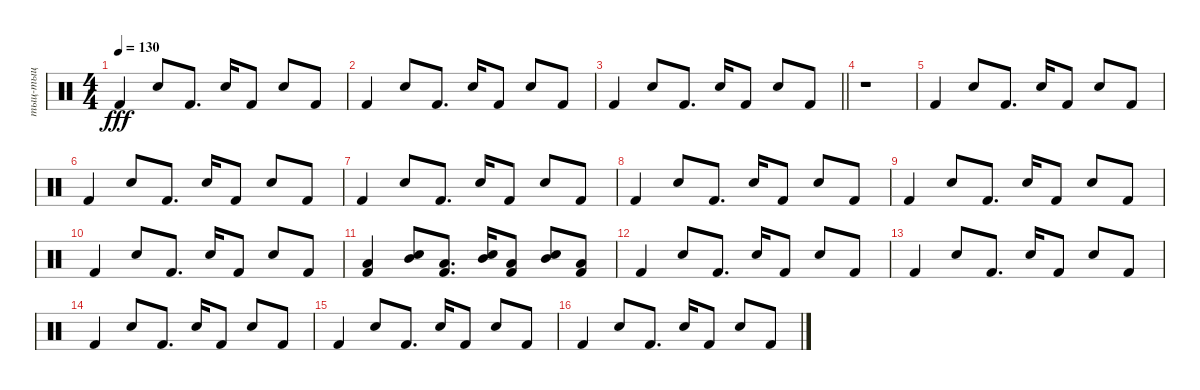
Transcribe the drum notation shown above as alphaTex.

\track ("тыц-тыц" "тыц-тыц") {instrument percussion}
\staff {score}
\articulation defaults
\ts (4 4)
\tempo 130
\clef neutral
\ks c "Kick (hit) 2".4{dy fff} "Snare (hit) 2".8 "Kick (hit) 2".8{d} "Snare (hit) 2".16 "Kick (hit) 2".8 "Snare (hit) 2".8 "Kick (hit) 2".8
|
"Kick (hit) 2".4 "Snare (hit) 2".8 "Kick (hit) 2".8{d} "Snare (hit) 2".16 "Kick (hit) 2".8 "Snare (hit) 2".8 "Kick (hit) 2".8 |
\barLineRight lightlight "Kick (hit) 2".4 "Snare (hit) 2".8 "Kick (hit) 2".8{d} "Snare (hit) 2".16 "Kick (hit) 2".8 "Snare (hit) 2".8 "Kick (hit) 2".8
|
r.1 |
"Kick (hit) 2".4 "Snare (hit) 2".8 "Kick (hit) 2".8{d} "Snare (hit) 2".16 "Kick (hit) 2".8 "Snare (hit) 2".8 "Kick (hit) 2".8 |
"Kick (hit) 2".4 "Snare (hit) 2".8 "Kick (hit) 2".8{d} "Snare (hit) 2".16 "Kick (hit) 2".8 "Snare (hit) 2".8 "Kick (hit) 2".8 |
"Kick (hit) 2".4 "Snare (hit) 2".8 "Kick (hit) 2".8{d} "Snare (hit) 2".16 "Kick (hit) 2".8 "Snare (hit) 2".8 "Kick (hit) 2".8 |
"Kick (hit) 2".4 "Snare (hit) 2".8 "Kick (hit) 2".8{d} "Snare (hit) 2".16 "Kick (hit) 2".8 "Snare (hit) 2".8 "Kick (hit) 2".8 |
"Kick (hit) 2".4 "Snare (hit) 2".8 "Kick (hit) 2".8{d} "Snare (hit) 2".16 "Kick (hit) 2".8 "Snare (hit) 2".8 "Kick (hit) 2".8 |
"Kick (hit) 2".4 "Snare (hit) 2".8 "Kick (hit) 2".8{d} "Snare (hit) 2".16 "Kick (hit) 2".8 "Snare (hit) 2".8 "Kick (hit) 2".8 |
("Low Tom (hit)" "Kick (hit) 2").4 ("Mid Tom (hit)" "Snare (hit) 2").8 ("Low Tom (hit)" "Kick (hit) 2").8{d} ("Mid Tom (hit)" "Snare (hit) 2").16 ("Low Tom (hit)" "Kick (hit) 2").8 ("Mid Tom (hit)" "Snare (hit) 2").8 ("Low Tom (hit)" "Kick (hit) 2").8 |
"Kick (hit) 2".4 "Snare (hit) 2".8 "Kick (hit) 2".8{d} "Snare (hit) 2".16 "Kick (hit) 2".8 "Snare (hit) 2".8 "Kick (hit) 2".8 |
"Kick (hit) 2".4 "Snare (hit) 2".8 "Kick (hit) 2".8{d} "Snare (hit) 2".16 "Kick (hit) 2".8 "Snare (hit) 2".8 "Kick (hit) 2".8 |
"Kick (hit) 2".4 "Snare (hit) 2".8 "Kick (hit) 2".8{d} "Snare (hit) 2".16 "Kick (hit) 2".8 "Snare (hit) 2".8 "Kick (hit) 2".8 |
"Kick (hit) 2".4 "Snare (hit) 2".8 "Kick (hit) 2".8{d} "Snare (hit) 2".16 "Kick (hit) 2".8 "Snare (hit) 2".8 "Kick (hit) 2".8 |
"Kick (hit) 2".4 "Snare (hit) 2".8 "Kick (hit) 2".8{d} "Snare (hit) 2".16 "Kick (hit) 2".8 "Snare (hit) 2".8 "Kick (hit) 2".8
